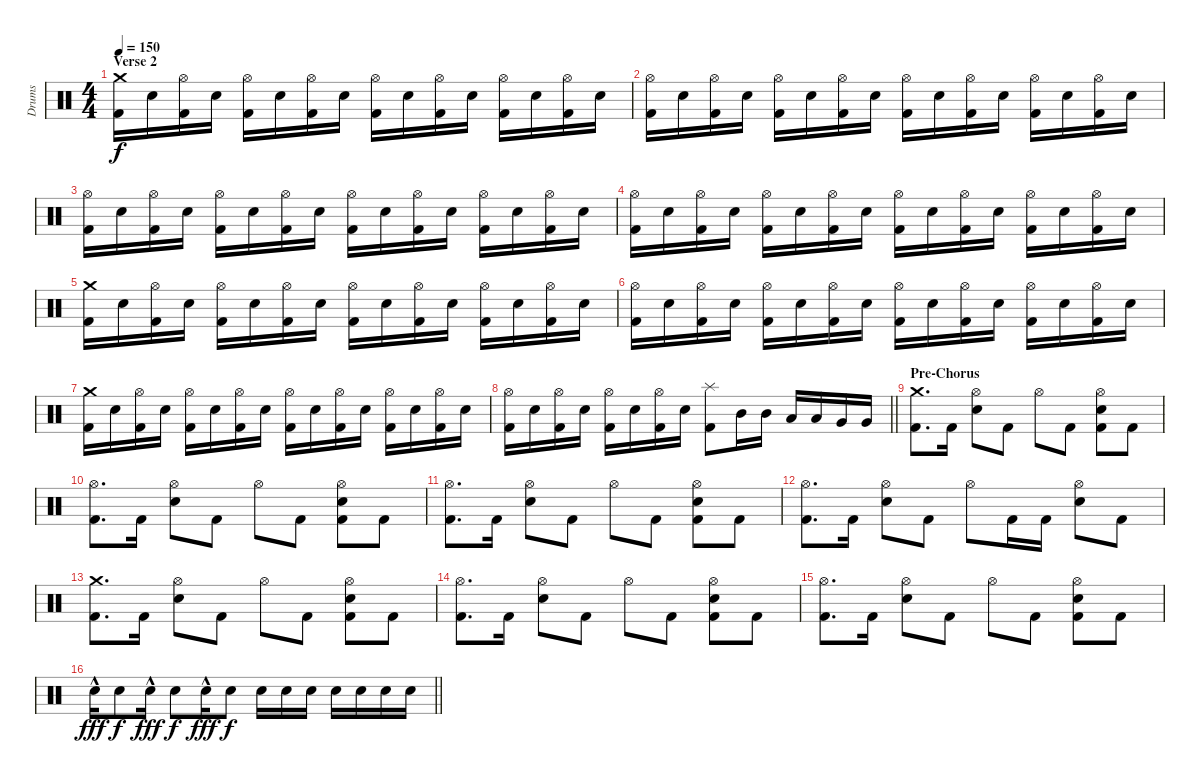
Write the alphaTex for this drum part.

\track ("Drums" "Drums") {instrument percussion}
\staff {score}
\articulation defaults
\ts (4 4)
\section ("" "Verse 2")
\tempo 150
\clef neutral
\ks c
("Crash medium (hit)" "Kick (hit) 2").16{dy f} "Snare (hit) 2".16 ("Hi-Hat (open)" "Kick (hit) 2").16 "Snare (hit) 2".16 ("Hi-Hat (open)" "Kick (hit) 2").16 "Snare (hit) 2".16 ("Hi-Hat (open)" "Kick (hit) 2").16 "Snare (hit) 2".16 ("Hi-Hat (open)" "Kick (hit) 2").16 "Snare (hit) 2".16 ("Hi-Hat (open)" "Kick (hit) 2").16 "Snare (hit) 2".16 ("Hi-Hat (open)" "Kick (hit) 2").16 "Snare (hit) 2".16 ("Hi-Hat (open)" "Kick (hit) 2").16 "Snare (hit) 2".16 |
("Hi-Hat (open)" "Kick (hit) 2").16 "Snare (hit) 2".16 ("Hi-Hat (open)" "Kick (hit) 2").16 "Snare (hit) 2".16 ("Hi-Hat (open)" "Kick (hit) 2").16 "Snare (hit) 2".16 ("Hi-Hat (open)" "Kick (hit) 2").16 "Snare (hit) 2".16 ("Hi-Hat (open)" "Kick (hit) 2").16 "Snare (hit) 2".16 ("Hi-Hat (open)" "Kick (hit) 2").16 "Snare (hit) 2".16 ("Hi-Hat (open)" "Kick (hit) 2").16 "Snare (hit) 2".16 ("Hi-Hat (open)" "Kick (hit) 2").16 "Snare (hit) 2".16 |
("Hi-Hat (open)" "Kick (hit) 2").16 "Snare (hit) 2".16 ("Hi-Hat (open)" "Kick (hit) 2").16 "Snare (hit) 2".16 ("Hi-Hat (open)" "Kick (hit) 2").16 "Snare (hit) 2".16 ("Hi-Hat (open)" "Kick (hit) 2").16 "Snare (hit) 2".16 ("Hi-Hat (open)" "Kick (hit) 2").16 "Snare (hit) 2".16 ("Hi-Hat (open)" "Kick (hit) 2").16 "Snare (hit) 2".16 ("Hi-Hat (open)" "Kick (hit) 2").16 "Snare (hit) 2".16 ("Hi-Hat (open)" "Kick (hit) 2").16 "Snare (hit) 2".16 |
("Hi-Hat (open)" "Kick (hit) 2").16 "Snare (hit) 2".16 ("Hi-Hat (open)" "Kick (hit) 2").16 "Snare (hit) 2".16 ("Hi-Hat (open)" "Kick (hit) 2").16 "Snare (hit) 2".16 ("Hi-Hat (open)" "Kick (hit) 2").16 "Snare (hit) 2".16 ("Hi-Hat (open)" "Kick (hit) 2").16 "Snare (hit) 2".16 ("Hi-Hat (open)" "Kick (hit) 2").16 "Snare (hit) 2".16 ("Hi-Hat (open)" "Kick (hit) 2").16 "Snare (hit) 2".16 ("Hi-Hat (open)" "Kick (hit) 2").16 "Snare (hit) 2".16 |
("Crash medium (hit)" "Kick (hit) 2").16 "Snare (hit) 2".16 ("Hi-Hat (open)" "Kick (hit) 2").16 "Snare (hit) 2".16 ("Hi-Hat (open)" "Kick (hit) 2").16 "Snare (hit) 2".16 ("Hi-Hat (open)" "Kick (hit) 2").16 "Snare (hit) 2".16 ("Hi-Hat (open)" "Kick (hit) 2").16 "Snare (hit) 2".16 ("Hi-Hat (open)" "Kick (hit) 2").16 "Snare (hit) 2".16 ("Hi-Hat (open)" "Kick (hit) 2").16 "Snare (hit) 2".16 ("Hi-Hat (open)" "Kick (hit) 2").16 "Snare (hit) 2".16 |
("Hi-Hat (open)" "Kick (hit) 2").16 "Snare (hit) 2".16 ("Hi-Hat (open)" "Kick (hit) 2").16 "Snare (hit) 2".16 ("Hi-Hat (open)" "Kick (hit) 2").16 "Snare (hit) 2".16 ("Hi-Hat (open)" "Kick (hit) 2").16 "Snare (hit) 2".16 ("Hi-Hat (open)" "Kick (hit) 2").16 "Snare (hit) 2".16 ("Hi-Hat (open)" "Kick (hit) 2").16 "Snare (hit) 2".16 ("Hi-Hat (open)" "Kick (hit) 2").16 "Snare (hit) 2".16 ("Hi-Hat (open)" "Kick (hit) 2").16 "Snare (hit) 2".16 |
("Crash medium (hit)" "Kick (hit) 2").16 "Snare (hit) 2".16 ("Hi-Hat (open)" "Kick (hit) 2").16 "Snare (hit) 2".16 ("Hi-Hat (open)" "Kick (hit) 2").16 "Snare (hit) 2".16 ("Hi-Hat (open)" "Kick (hit) 2").16 "Snare (hit) 2".16 ("Hi-Hat (open)" "Kick (hit) 2").16 "Snare (hit) 2".16 ("Hi-Hat (open)" "Kick (hit) 2").16 "Snare (hit) 2".16 ("Hi-Hat (open)" "Kick (hit) 2").16 "Snare (hit) 2".16 ("Hi-Hat (open)" "Kick (hit) 2").16 "Snare (hit) 2".16 |
\barLineRight lightlight
("Hi-Hat (open)" "Kick (hit) 2").16 "Snare (hit) 2".16 ("Hi-Hat (open)" "Kick (hit) 2").16 "Snare (hit) 2".16 ("Hi-Hat (open)" "Kick (hit) 2").16 "Snare (hit) 2".16 ("Hi-Hat (open)" "Kick (hit) 2").16 "Snare (hit) 2".16 ("Splash (hit)" "Kick (hit) 2").8 "Mid Tom (hit)".16 "Mid Tom (hit)".16 "Low Tom (hit)".16 "Low Tom (hit)".16 "Very Low Tom (hit)".16 "Very Low Tom (hit)".16 |
\section ("" "Pre-Chorus")
("Crash medium (hit)" "Kick (hit) 2").8{d} "Kick (hit) 2".16 ("Hi-Hat (open)" "Snare (hit) 2").8 "Kick (hit) 2".8 "Hi-Hat (open)".8 "Kick (hit) 2".8 ("Hi-Hat (open)" "Snare (hit) 2" "Kick (hit) 2").8 "Kick (hit) 2".8 |
("Hi-Hat (open)" "Kick (hit) 2").8{d} "Kick (hit) 2".16 ("Hi-Hat (open)" "Snare (hit) 2").8 "Kick (hit) 2".8 "Hi-Hat (open)".8 "Kick (hit) 2".8 ("Hi-Hat (open)" "Snare (hit) 2" "Kick (hit) 2").8 "Kick (hit) 2".8 |
("Hi-Hat (open)" "Kick (hit) 2").8{d} "Kick (hit) 2".16 ("Hi-Hat (open)" "Snare (hit) 2").8 "Kick (hit) 2".8 "Hi-Hat (open)".8 "Kick (hit) 2".8 ("Hi-Hat (open)" "Snare (hit) 2" "Kick (hit) 2").8 "Kick (hit) 2".8 |
("Hi-Hat (open)" "Kick (hit) 2").8{d} "Kick (hit) 2".16 ("Hi-Hat (open)" "Snare (hit) 2").8 "Kick (hit) 2".8 "Hi-Hat (open)".8 "Kick (hit) 2".16 "Kick (hit) 2".16 ("Hi-Hat (open)" "Snare (hit) 2").8 "Kick (hit) 2".8 |
("Crash medium (hit)" "Kick (hit) 2").8{d} "Kick (hit) 2".16 ("Hi-Hat (open)" "Snare (hit) 2").8 "Kick (hit) 2".8 "Hi-Hat (open)".8 "Kick (hit) 2".8 ("Hi-Hat (open)" "Snare (hit) 2" "Kick (hit) 2").8 "Kick (hit) 2".8 |
("Hi-Hat (open)" "Kick (hit) 2").8{d} "Kick (hit) 2".16 ("Hi-Hat (open)" "Snare (hit) 2").8 "Kick (hit) 2".8 "Hi-Hat (open)".8 "Kick (hit) 2".8 ("Hi-Hat (open)" "Snare (hit) 2" "Kick (hit) 2").8 "Kick (hit) 2".8 |
("Hi-Hat (open)" "Kick (hit) 2").8{d} "Kick (hit) 2".16 ("Hi-Hat (open)" "Snare (hit) 2").8 "Kick (hit) 2".8 "Hi-Hat (open)".8 "Kick (hit) 2".8 ("Hi-Hat (open)" "Snare (hit) 2" "Kick (hit) 2").8 "Kick (hit) 2".8 |
\barLineRight lightlight "Snare (hit) 2"{hac}.16{dy fff} "Snare (hit) 2".8{dy f} "Snare (hit) 2"{hac}.16{dy fff} "Snare (hit) 2".8{dy f} "Snare (hit) 2"{hac}.16{dy fff} "Snare (hit) 2".8{dy f} "Snare (hit) 2".16 "Snare (hit) 2".16 "Snare (hit) 2".16 "Snare (hit) 2".16 "Snare (hit) 2".16 "Snare (hit) 2".16 "Snare (hit) 2".16
